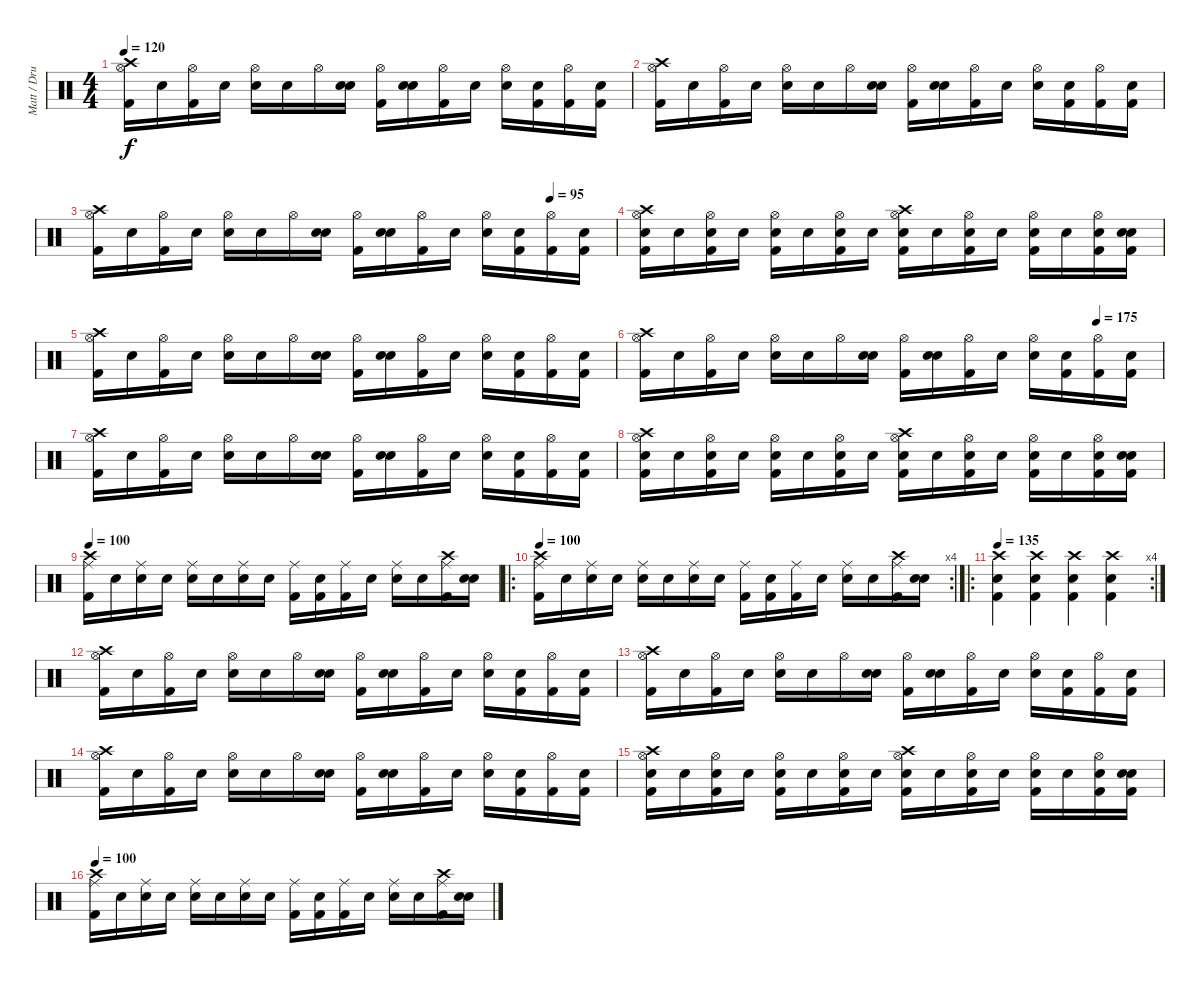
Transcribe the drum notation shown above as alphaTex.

\track ("Matt / Drums" "Matt / Dru") {instrument percussion}
\staff {score}
\articulation defaults
\ts (4 4)
\tempo 120
\clef neutral
\ks c
("Crash high (hit)" "Hi-Hat (open)" "Kick (hit) 2").16{dy f} "Snare (hit)".16 ("Hi-Hat (open)" "Kick (hit) 2").16 "Snare (hit)".16 ("Hi-Hat (open)" "Snare (hit) 2").16 "Snare (hit)".16 "Hi-Hat (open)".16 ("Snare (hit)" "Snare (hit) 2").16 ("Hi-Hat (open)" "Kick (hit) 2").16 ("Snare (hit)" "Snare (hit) 2").16 ("Hi-Hat (open)" "Kick (hit) 2").16 "Snare (hit)".16 ("Hi-Hat (open)" "Snare (hit) 2").16 ("Snare (hit)" "Kick (hit) 2").16 ("Hi-Hat (open)" "Kick (hit) 2").16 ("Snare (hit)" "Kick (hit) 2").16 |
("Crash high (hit)" "Hi-Hat (open)" "Kick (hit) 2").16 "Snare (hit)".16 ("Hi-Hat (open)" "Kick (hit) 2").16 "Snare (hit)".16 ("Hi-Hat (open)" "Snare (hit) 2").16 "Snare (hit)".16 "Hi-Hat (open)".16 ("Snare (hit)" "Snare (hit) 2").16 ("Hi-Hat (open)" "Kick (hit) 2").16 ("Snare (hit)" "Snare (hit) 2").16 ("Hi-Hat (open)" "Kick (hit) 2").16 "Snare (hit)".16 ("Hi-Hat (open)" "Snare (hit) 2").16 ("Snare (hit)" "Kick (hit) 2").16 ("Hi-Hat (open)" "Kick (hit) 2").16 ("Snare (hit)" "Kick (hit) 2").16 |
\tempo (95 0.875)
("Crash high (hit)" "Hi-Hat (open)" "Kick (hit) 2").16 "Snare (hit)".16 ("Hi-Hat (open)" "Kick (hit) 2").16 "Snare (hit)".16 ("Hi-Hat (open)" "Snare (hit) 2").16 "Snare (hit)".16 "Hi-Hat (open)".16 ("Snare (hit)" "Snare (hit) 2").16 ("Hi-Hat (open)" "Kick (hit) 2").16 ("Snare (hit)" "Snare (hit) 2").16 ("Hi-Hat (open)" "Kick (hit) 2").16 "Snare (hit)".16 ("Hi-Hat (open)" "Snare (hit) 2").16 ("Snare (hit)" "Kick (hit) 2").16 ("Hi-Hat (open)" "Kick (hit) 2").16 ("Snare (hit)" "Kick (hit) 2").16 |
("Crash high (hit)" "Hi-Hat (open)" "Snare (hit) 2" "Kick (hit) 2").16 "Snare (hit)".16 ("Hi-Hat (open)" "Snare (hit) 2" "Kick (hit) 2").16 "Snare (hit)".16 ("Hi-Hat (open)" "Snare (hit) 2" "Kick (hit) 2").16 "Snare (hit)".16 ("Hi-Hat (open)" "Snare (hit) 2" "Kick (hit) 2").16 "Snare (hit)".16 ("Crash high (hit)" "Hi-Hat (open)" "Snare (hit) 2" "Kick (hit) 2").16 "Snare (hit)".16 ("Hi-Hat (open)" "Snare (hit) 2" "Kick (hit) 2").16 "Snare (hit)".16 ("Hi-Hat (open)" "Kick (hit) 2" "Snare (hit) 2").16 "Snare (hit)".16 ("Hi-Hat (open)" "Snare (hit) 2" "Kick (hit) 2").16 ("Snare (hit)" "Snare (hit) 2" "Kick (hit) 2").16 |
("Crash high (hit)" "Hi-Hat (open)" "Kick (hit) 2").16 "Snare (hit)".16 ("Hi-Hat (open)" "Kick (hit) 2").16 "Snare (hit)".16 ("Hi-Hat (open)" "Snare (hit) 2").16 "Snare (hit)".16 "Hi-Hat (open)".16 ("Snare (hit)" "Snare (hit) 2").16 ("Hi-Hat (open)" "Kick (hit) 2").16 ("Snare (hit)" "Snare (hit) 2").16 ("Hi-Hat (open)" "Kick (hit) 2").16 "Snare (hit)".16 ("Hi-Hat (open)" "Snare (hit) 2").16 ("Snare (hit)" "Kick (hit) 2").16 ("Hi-Hat (open)" "Kick (hit) 2").16 ("Snare (hit)" "Kick (hit) 2").16 |
\tempo (175 0.875)
("Crash high (hit)" "Hi-Hat (open)" "Kick (hit) 2").16 "Snare (hit)".16 ("Hi-Hat (open)" "Kick (hit) 2").16 "Snare (hit)".16 ("Hi-Hat (open)" "Snare (hit) 2").16 "Snare (hit)".16 "Hi-Hat (open)".16 ("Snare (hit)" "Snare (hit) 2").16 ("Hi-Hat (open)" "Kick (hit) 2").16 ("Snare (hit)" "Snare (hit) 2").16 ("Hi-Hat (open)" "Kick (hit) 2").16 "Snare (hit)".16 ("Hi-Hat (open)" "Snare (hit) 2").16 ("Snare (hit)" "Kick (hit) 2").16 ("Hi-Hat (open)" "Kick (hit) 2").16 ("Snare (hit)" "Kick (hit) 2").16 |
("Crash high (hit)" "Hi-Hat (open)" "Kick (hit) 2").16 "Snare (hit)".16 ("Hi-Hat (open)" "Kick (hit) 2").16 "Snare (hit)".16 ("Hi-Hat (open)" "Snare (hit) 2").16 "Snare (hit)".16 "Hi-Hat (open)".16 ("Snare (hit)" "Snare (hit) 2").16 ("Hi-Hat (open)" "Kick (hit) 2").16 ("Snare (hit)" "Snare (hit) 2").16 ("Hi-Hat (open)" "Kick (hit) 2").16 "Snare (hit)".16 ("Hi-Hat (open)" "Snare (hit) 2").16 ("Snare (hit)" "Kick (hit) 2").16 ("Hi-Hat (open)" "Kick (hit) 2").16 ("Snare (hit)" "Kick (hit) 2").16 |
("Crash high (hit)" "Hi-Hat (open)" "Snare (hit) 2" "Kick (hit) 2").16 "Snare (hit)".16 ("Hi-Hat (open)" "Snare (hit) 2" "Kick (hit) 2").16 "Snare (hit)".16 ("Hi-Hat (open)" "Snare (hit) 2" "Kick (hit) 2").16 "Snare (hit)".16 ("Hi-Hat (open)" "Snare (hit) 2" "Kick (hit) 2").16 "Snare (hit)".16 ("Crash high (hit)" "Hi-Hat (open)" "Snare (hit) 2" "Kick (hit) 2").16 "Snare (hit)".16 ("Hi-Hat (open)" "Snare (hit) 2" "Kick (hit) 2").16 "Snare (hit)".16 ("Hi-Hat (open)" "Kick (hit) 2" "Snare (hit) 2").16 "Snare (hit)".16 ("Hi-Hat (open)" "Snare (hit) 2" "Kick (hit) 2").16 ("Snare (hit)" "Snare (hit) 2" "Kick (hit) 2").16 |
\tempo 100
("Crash high (hit)" "Ride (middle)" "Kick (hit) 2").16 "Snare (hit)".16 ("Ride (middle)" "Snare (hit)").16 "Snare (hit)".16 ("Ride (middle)" "Snare (hit) 2").16 "Snare (hit)".16 ("Ride (middle)" "Snare (hit)").16 "Snare (hit)".16 ("Ride (middle)" "Kick (hit) 2").16 ("Snare (hit)" "Kick (hit) 2").16 ("Ride (middle)" "Kick (hit) 2").16 "Snare (hit)".16 ("Ride (middle)" "Snare (hit) 2").16 "Snare (hit)".16 ("Crash high (hit)" "Ride (middle)" "Kick (hit) 2").16 ("Snare (hit)" "Snare (hit) 2").16 |
\ro
\rc 4
\tempo 100
("Crash high (hit)" "Ride (middle)" "Kick (hit) 2").16 "Snare (hit)".16 ("Ride (middle)" "Snare (hit)").16 "Snare (hit)".16 ("Ride (middle)" "Snare (hit) 2").16 "Snare (hit)".16 ("Ride (middle)" "Snare (hit)").16 "Snare (hit)".16 ("Ride (middle)" "Kick (hit) 2").16 ("Snare (hit)" "Kick (hit) 2").16 ("Ride (middle)" "Kick (hit) 2").16 "Snare (hit)".16 ("Ride (middle)" "Snare (hit) 2").16 "Snare (hit)".16 ("Crash high (hit)" "Ride (middle)" "Kick (hit) 2").16 ("Snare (hit)" "Snare (hit) 2").16 |
\ro
\rc 4
\tempo 135
("Crash high (hit)" "Snare (hit) 2" "Kick (hit) 2").4 ("Crash high (hit)" "Snare (hit) 2" "Kick (hit) 2").4 ("Crash high (hit)" "Snare (hit) 2" "Kick (hit) 2").4 ("Crash high (hit)" "Kick (hit) 2" "Snare (hit) 2").4 |
("Crash high (hit)" "Hi-Hat (open)" "Kick (hit) 2").16 "Snare (hit)".16 ("Hi-Hat (open)" "Kick (hit) 2").16 "Snare (hit)".16 ("Hi-Hat (open)" "Snare (hit) 2").16 "Snare (hit)".16 "Hi-Hat (open)".16 ("Snare (hit)" "Snare (hit) 2").16 ("Hi-Hat (open)" "Kick (hit) 2").16 ("Snare (hit)" "Snare (hit) 2").16 ("Hi-Hat (open)" "Kick (hit) 2").16 "Snare (hit)".16 ("Hi-Hat (open)" "Snare (hit) 2").16 ("Snare (hit)" "Kick (hit) 2").16 ("Hi-Hat (open)" "Kick (hit) 2").16 ("Snare (hit)" "Kick (hit) 2").16 |
("Crash high (hit)" "Hi-Hat (open)" "Kick (hit) 2").16 "Snare (hit)".16 ("Hi-Hat (open)" "Kick (hit) 2").16 "Snare (hit)".16 ("Hi-Hat (open)" "Snare (hit) 2").16 "Snare (hit)".16 "Hi-Hat (open)".16 ("Snare (hit)" "Snare (hit) 2").16 ("Hi-Hat (open)" "Kick (hit) 2").16 ("Snare (hit)" "Snare (hit) 2").16 ("Hi-Hat (open)" "Kick (hit) 2").16 "Snare (hit)".16 ("Hi-Hat (open)" "Snare (hit) 2").16 ("Snare (hit)" "Kick (hit) 2").16 ("Hi-Hat (open)" "Kick (hit) 2").16 ("Snare (hit)" "Kick (hit) 2").16 |
("Crash high (hit)" "Hi-Hat (open)" "Kick (hit) 2").16 "Snare (hit)".16 ("Hi-Hat (open)" "Kick (hit) 2").16 "Snare (hit)".16 ("Hi-Hat (open)" "Snare (hit) 2").16 "Snare (hit)".16 "Hi-Hat (open)".16 ("Snare (hit)" "Snare (hit) 2").16 ("Hi-Hat (open)" "Kick (hit) 2").16 ("Snare (hit)" "Snare (hit) 2").16 ("Hi-Hat (open)" "Kick (hit) 2").16 "Snare (hit)".16 ("Hi-Hat (open)" "Snare (hit) 2").16 ("Snare (hit)" "Kick (hit) 2").16 ("Hi-Hat (open)" "Kick (hit) 2").16 ("Snare (hit)" "Kick (hit) 2").16 |
("Crash high (hit)" "Hi-Hat (open)" "Snare (hit) 2" "Kick (hit) 2").16 "Snare (hit)".16 ("Hi-Hat (open)" "Snare (hit) 2" "Kick (hit) 2").16 "Snare (hit)".16 ("Hi-Hat (open)" "Snare (hit) 2" "Kick (hit) 2").16 "Snare (hit)".16 ("Hi-Hat (open)" "Snare (hit) 2" "Kick (hit) 2").16 "Snare (hit)".16 ("Crash high (hit)" "Hi-Hat (open)" "Snare (hit) 2" "Kick (hit) 2").16 "Snare (hit)".16 ("Hi-Hat (open)" "Snare (hit) 2" "Kick (hit) 2").16 "Snare (hit)".16 ("Hi-Hat (open)" "Kick (hit) 2" "Snare (hit) 2").16 "Snare (hit)".16 ("Hi-Hat (open)" "Snare (hit) 2" "Kick (hit) 2").16 ("Snare (hit)" "Snare (hit) 2" "Kick (hit) 2").16 |
\tempo 100
("Crash high (hit)" "Ride (middle)" "Kick (hit) 2").16 "Snare (hit)".16 ("Ride (middle)" "Snare (hit)").16 "Snare (hit)".16 ("Ride (middle)" "Snare (hit) 2").16 "Snare (hit)".16 ("Ride (middle)" "Snare (hit)").16 "Snare (hit)".16 ("Ride (middle)" "Kick (hit) 2").16 ("Snare (hit)" "Kick (hit) 2").16 ("Ride (middle)" "Kick (hit) 2").16 "Snare (hit)".16 ("Ride (middle)" "Snare (hit) 2").16 "Snare (hit)".16 ("Crash high (hit)" "Ride (middle)" "Kick (hit) 2").16 ("Snare (hit)" "Snare (hit) 2").16
